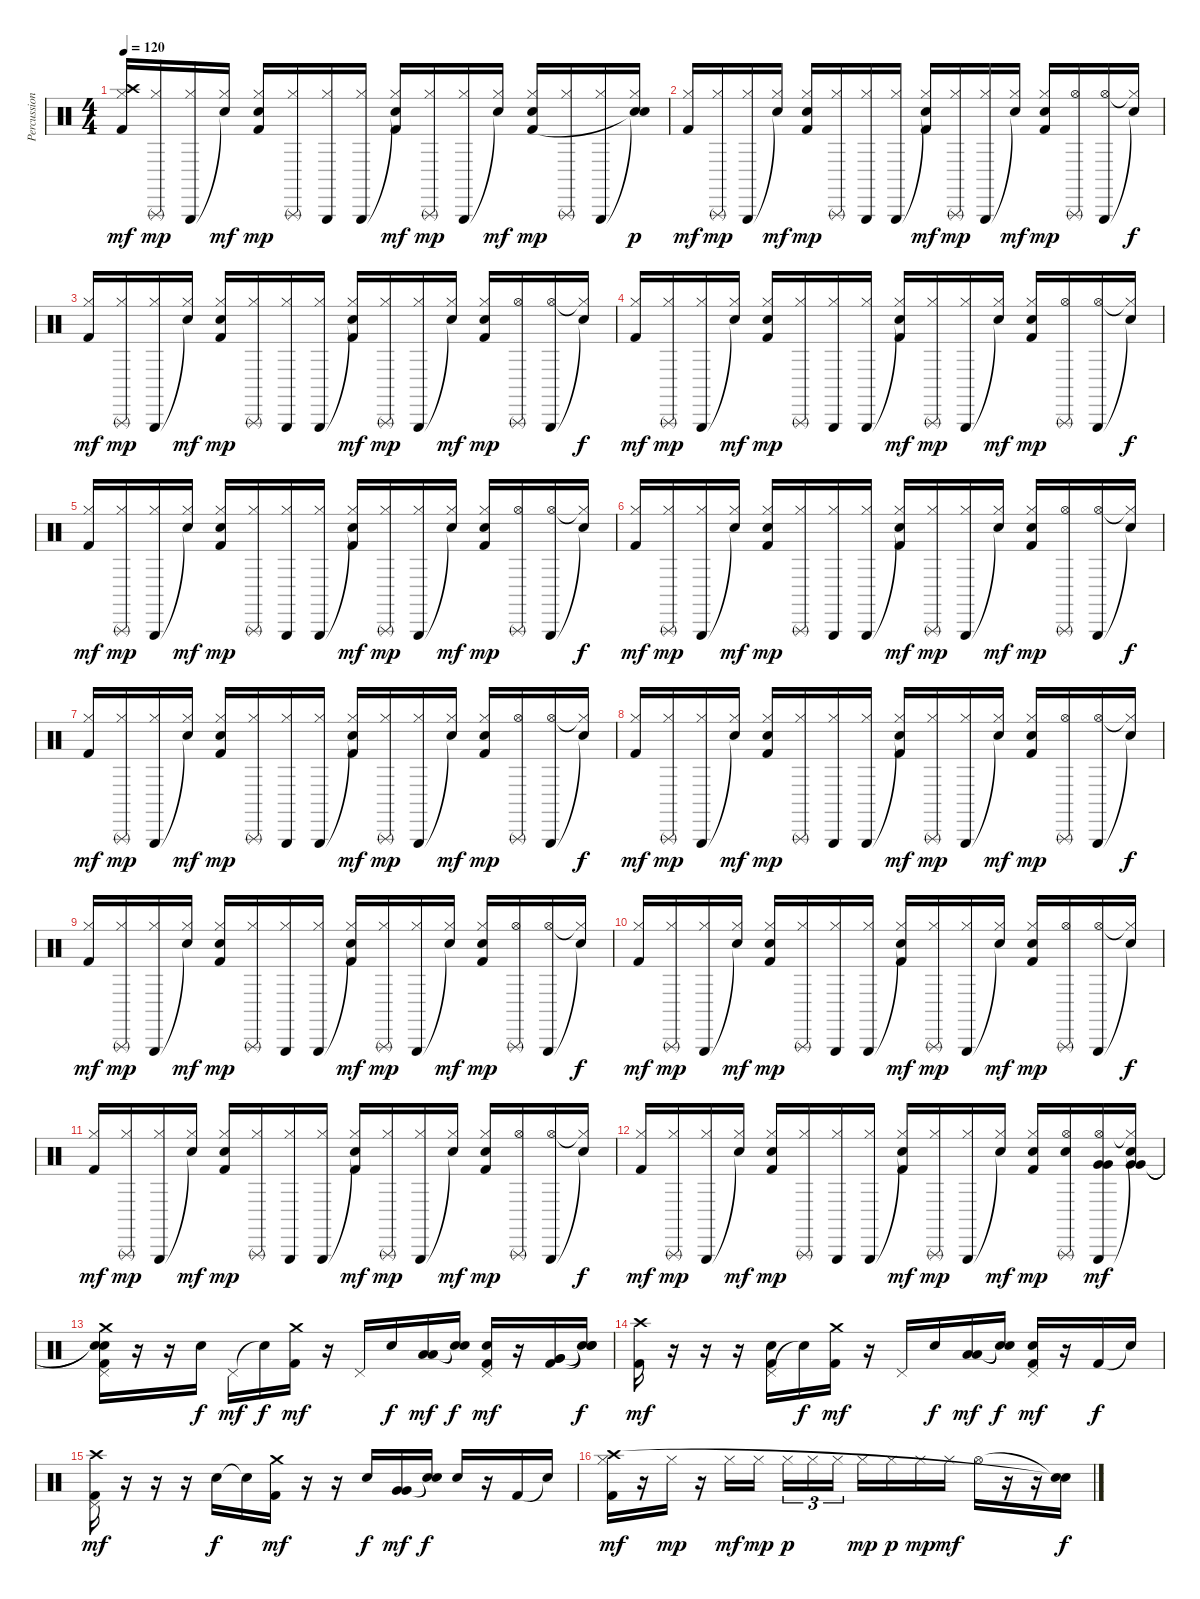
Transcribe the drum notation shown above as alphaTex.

\track ("Percussion" "Percussion") {instrument percussion}
\staff {score}
\articulation defaults
\ts (4 4)
\tempo 120
\clef neutral
\ks c
("Hi-Hat (closed)" "Crash high (hit)" "Kick (hit) 2").16{dy mf} ("Hi-Hat (closed)" "Triangle (rnute)").16{dy mp} ("Hi-Hat (closed)" "Triangle (hit)").16 ("Hi-Hat (closed)" "Snare (hit)"{t}).16{dy mf} ("Hi-Hat (closed)" "Electric Snare (hit)" "Kick (hit) 2").16{dy mp} ("Hi-Hat (closed)" "Triangle (rnute)").16 ("Hi-Hat (closed)" "Triangle (hit)").16 ("Hi-Hat (closed)" "Triangle (hit)").16 ("Hi-Hat (closed)" "Snare (hit)"{t} "Kick (hit) 2").16{dy mf} ("Hi-Hat (closed)" "Triangle (rnute)").16{dy mp} ("Hi-Hat (closed)" "Triangle (hit)").16 ("Hi-Hat (closed)" "Snare (hit)"{t}).16{dy mf} ("Hi-Hat (closed)" "Electric Snare (hit)" "Kick (hit) 2").16{dy mp} ("Hi-Hat (closed)" "Triangle (rnute)").16 ("Hi-Hat (closed)" "Triangle (hit)").16 ("Hi-Hat (closed)" "Snare (hit)"{t} "Snare (hit)"{t}).16{dy p} |
("Hi-Hat (closed)" "Kick (hit) 2").16{dy mf} ("Hi-Hat (closed)" "Triangle (rnute)").16{dy mp} ("Hi-Hat (closed)" "Triangle (hit)").16 ("Hi-Hat (closed)" "Snare (hit)"{t}).16{dy mf} ("Hi-Hat (closed)" "Electric Snare (hit)" "Kick (hit) 2").16{dy mp} ("Hi-Hat (closed)" "Triangle (rnute)").16 ("Hi-Hat (closed)" "Triangle (hit)").16 ("Hi-Hat (closed)" "Triangle (hit)").16 ("Hi-Hat (closed)" "Snare (hit)"{t} "Kick (hit) 2").16{dy mf} ("Hi-Hat (closed)" "Triangle (rnute)").16{dy mp} ("Hi-Hat (closed)" "Triangle (hit)").16 ("Hi-Hat (closed)" "Snare (hit)"{t}).16{dy mf} ("Hi-Hat (closed)" "Electric Snare (hit)" "Kick (hit) 2").16{dy mp} ("Hi-Hat (open)" "Triangle (rnute)").16 ("Hi-Hat (open)" "Triangle (hit)").16 ("Hi-Hat (closed)"{t} "Snare (hit)"{t}).16{dy f} |
("Hi-Hat (closed)" "Kick (hit) 2").16{dy mf} ("Hi-Hat (closed)" "Triangle (rnute)").16{dy mp} ("Hi-Hat (closed)" "Triangle (hit)").16 ("Hi-Hat (closed)" "Snare (hit)"{t}).16{dy mf} ("Hi-Hat (closed)" "Electric Snare (hit)" "Kick (hit) 2").16{dy mp} ("Hi-Hat (closed)" "Triangle (rnute)").16 ("Hi-Hat (closed)" "Triangle (hit)").16 ("Hi-Hat (closed)" "Triangle (hit)").16 ("Hi-Hat (closed)" "Snare (hit)"{t} "Kick (hit) 2").16{dy mf} ("Hi-Hat (closed)" "Triangle (rnute)").16{dy mp} ("Hi-Hat (closed)" "Triangle (hit)").16 ("Hi-Hat (closed)" "Snare (hit)"{t}).16{dy mf} ("Hi-Hat (closed)" "Electric Snare (hit)" "Kick (hit) 2").16{dy mp} ("Hi-Hat (open)" "Triangle (rnute)").16 ("Hi-Hat (open)" "Triangle (hit)").16 ("Hi-Hat (closed)"{t} "Snare (hit)"{t}).16{dy f} |
("Hi-Hat (closed)" "Kick (hit) 2").16{dy mf} ("Hi-Hat (closed)" "Triangle (rnute)").16{dy mp} ("Hi-Hat (closed)" "Triangle (hit)").16 ("Hi-Hat (closed)" "Snare (hit)"{t}).16{dy mf} ("Hi-Hat (closed)" "Electric Snare (hit)" "Kick (hit) 2").16{dy mp} ("Hi-Hat (closed)" "Triangle (rnute)").16 ("Hi-Hat (closed)" "Triangle (hit)").16 ("Hi-Hat (closed)" "Triangle (hit)").16 ("Hi-Hat (closed)" "Snare (hit)"{t} "Kick (hit) 2").16{dy mf} ("Hi-Hat (closed)" "Triangle (rnute)").16{dy mp} ("Hi-Hat (closed)" "Triangle (hit)").16 ("Hi-Hat (closed)" "Snare (hit)"{t}).16{dy mf} ("Hi-Hat (closed)" "Electric Snare (hit)" "Kick (hit) 2").16{dy mp} ("Hi-Hat (open)" "Triangle (rnute)").16 ("Hi-Hat (open)" "Triangle (hit)").16 ("Hi-Hat (closed)"{t} "Snare (hit)"{t}).16{dy f} |
("Hi-Hat (closed)" "Kick (hit) 2").16{dy mf} ("Hi-Hat (closed)" "Triangle (rnute)").16{dy mp} ("Hi-Hat (closed)" "Triangle (hit)").16 ("Hi-Hat (closed)" "Snare (hit)"{t}).16{dy mf} ("Hi-Hat (closed)" "Electric Snare (hit)" "Kick (hit) 2").16{dy mp} ("Hi-Hat (closed)" "Triangle (rnute)").16 ("Hi-Hat (closed)" "Triangle (hit)").16 ("Hi-Hat (closed)" "Triangle (hit)").16 ("Hi-Hat (closed)" "Snare (hit)"{t} "Kick (hit) 2").16{dy mf} ("Hi-Hat (closed)" "Triangle (rnute)").16{dy mp} ("Hi-Hat (closed)" "Triangle (hit)").16 ("Hi-Hat (closed)" "Snare (hit)"{t}).16{dy mf} ("Hi-Hat (closed)" "Electric Snare (hit)" "Kick (hit) 2").16{dy mp} ("Hi-Hat (open)" "Triangle (rnute)").16 ("Hi-Hat (open)" "Triangle (hit)").16 ("Hi-Hat (closed)"{t} "Snare (hit)"{t}).16{dy f} |
("Hi-Hat (closed)" "Kick (hit) 2").16{dy mf} ("Hi-Hat (closed)" "Triangle (rnute)").16{dy mp} ("Hi-Hat (closed)" "Triangle (hit)").16 ("Hi-Hat (closed)" "Snare (hit)"{t}).16{dy mf} ("Hi-Hat (closed)" "Electric Snare (hit)" "Kick (hit) 2").16{dy mp} ("Hi-Hat (closed)" "Triangle (rnute)").16 ("Hi-Hat (closed)" "Triangle (hit)").16 ("Hi-Hat (closed)" "Triangle (hit)").16 ("Hi-Hat (closed)" "Snare (hit)"{t} "Kick (hit) 2").16{dy mf} ("Hi-Hat (closed)" "Triangle (rnute)").16{dy mp} ("Hi-Hat (closed)" "Triangle (hit)").16 ("Hi-Hat (closed)" "Snare (hit)"{t}).16{dy mf} ("Hi-Hat (closed)" "Electric Snare (hit)" "Kick (hit) 2").16{dy mp} ("Hi-Hat (open)" "Triangle (rnute)").16 ("Hi-Hat (open)" "Triangle (hit)").16 ("Hi-Hat (closed)"{t} "Snare (hit)"{t}).16{dy f} |
("Hi-Hat (closed)" "Kick (hit) 2").16{dy mf} ("Hi-Hat (closed)" "Triangle (rnute)").16{dy mp} ("Hi-Hat (closed)" "Triangle (hit)").16 ("Hi-Hat (closed)" "Snare (hit)"{t}).16{dy mf} ("Hi-Hat (closed)" "Electric Snare (hit)" "Kick (hit) 2").16{dy mp} ("Hi-Hat (closed)" "Triangle (rnute)").16 ("Hi-Hat (closed)" "Triangle (hit)").16 ("Hi-Hat (closed)" "Triangle (hit)").16 ("Hi-Hat (closed)" "Snare (hit)"{t} "Kick (hit) 2").16{dy mf} ("Hi-Hat (closed)" "Triangle (rnute)").16{dy mp} ("Hi-Hat (closed)" "Triangle (hit)").16 ("Hi-Hat (closed)" "Snare (hit)"{t}).16{dy mf} ("Hi-Hat (closed)" "Electric Snare (hit)" "Kick (hit) 2").16{dy mp} ("Hi-Hat (open)" "Triangle (rnute)").16 ("Hi-Hat (open)" "Triangle (hit)").16 ("Hi-Hat (closed)"{t} "Snare (hit)"{t}).16{dy f} |
("Hi-Hat (closed)" "Kick (hit) 2").16{dy mf} ("Hi-Hat (closed)" "Triangle (rnute)").16{dy mp} ("Hi-Hat (closed)" "Triangle (hit)").16 ("Hi-Hat (closed)" "Snare (hit)"{t}).16{dy mf} ("Hi-Hat (closed)" "Electric Snare (hit)" "Kick (hit) 2").16{dy mp} ("Hi-Hat (closed)" "Triangle (rnute)").16 ("Hi-Hat (closed)" "Triangle (hit)").16 ("Hi-Hat (closed)" "Triangle (hit)").16 ("Hi-Hat (closed)" "Snare (hit)"{t} "Kick (hit) 2").16{dy mf} ("Hi-Hat (closed)" "Triangle (rnute)").16{dy mp} ("Hi-Hat (closed)" "Triangle (hit)").16 ("Hi-Hat (closed)" "Snare (hit)"{t}).16{dy mf} ("Hi-Hat (closed)" "Electric Snare (hit)" "Kick (hit) 2").16{dy mp} ("Hi-Hat (open)" "Triangle (rnute)").16 ("Hi-Hat (open)" "Triangle (hit)").16 ("Hi-Hat (closed)"{t} "Snare (hit)"{t}).16{dy f} |
("Hi-Hat (closed)" "Kick (hit) 2").16{dy mf} ("Hi-Hat (closed)" "Triangle (rnute)").16{dy mp} ("Hi-Hat (closed)" "Triangle (hit)").16 ("Hi-Hat (closed)" "Snare (hit)"{t}).16{dy mf} ("Hi-Hat (closed)" "Electric Snare (hit)" "Kick (hit) 2").16{dy mp} ("Hi-Hat (closed)" "Triangle (rnute)").16 ("Hi-Hat (closed)" "Triangle (hit)").16 ("Hi-Hat (closed)" "Triangle (hit)").16 ("Hi-Hat (closed)" "Snare (hit)"{t} "Kick (hit) 2").16{dy mf} ("Hi-Hat (closed)" "Triangle (rnute)").16{dy mp} ("Hi-Hat (closed)" "Triangle (hit)").16 ("Hi-Hat (closed)" "Snare (hit)"{t}).16{dy mf} ("Hi-Hat (closed)" "Electric Snare (hit)" "Kick (hit) 2").16{dy mp} ("Hi-Hat (open)" "Triangle (rnute)").16 ("Hi-Hat (open)" "Triangle (hit)").16 ("Hi-Hat (closed)"{t} "Snare (hit)"{t}).16{dy f} |
("Hi-Hat (closed)" "Kick (hit) 2").16{dy mf} ("Hi-Hat (closed)" "Triangle (rnute)").16{dy mp} ("Hi-Hat (closed)" "Triangle (hit)").16 ("Hi-Hat (closed)" "Snare (hit)"{t}).16{dy mf} ("Hi-Hat (closed)" "Electric Snare (hit)" "Kick (hit) 2").16{dy mp} ("Hi-Hat (closed)" "Triangle (rnute)").16 ("Hi-Hat (closed)" "Triangle (hit)").16 ("Hi-Hat (closed)" "Triangle (hit)").16 ("Hi-Hat (closed)" "Snare (hit)"{t} "Kick (hit) 2").16{dy mf} ("Hi-Hat (closed)" "Triangle (rnute)").16{dy mp} ("Hi-Hat (closed)" "Triangle (hit)").16 ("Hi-Hat (closed)" "Snare (hit)"{t}).16{dy mf} ("Hi-Hat (closed)" "Electric Snare (hit)" "Kick (hit) 2").16{dy mp} ("Hi-Hat (open)" "Triangle (rnute)").16 ("Hi-Hat (open)" "Triangle (hit)").16 ("Hi-Hat (closed)"{t} "Snare (hit)"{t}).16{dy f} |
("Hi-Hat (closed)" "Kick (hit) 2").16{dy mf} ("Hi-Hat (closed)" "Triangle (rnute)").16{dy mp} ("Hi-Hat (closed)" "Triangle (hit)").16 ("Hi-Hat (closed)" "Snare (hit)"{t}).16{dy mf} ("Hi-Hat (closed)" "Electric Snare (hit)" "Kick (hit) 2").16{dy mp} ("Hi-Hat (closed)" "Triangle (rnute)").16 ("Hi-Hat (closed)" "Triangle (hit)").16 ("Hi-Hat (closed)" "Triangle (hit)").16 ("Hi-Hat (closed)" "Snare (hit)"{t} "Kick (hit) 2").16{dy mf} ("Hi-Hat (closed)" "Triangle (rnute)").16{dy mp} ("Hi-Hat (closed)" "Triangle (hit)").16 ("Hi-Hat (closed)" "Snare (hit)"{t}).16{dy mf} ("Hi-Hat (closed)" "Electric Snare (hit)" "Kick (hit) 2").16{dy mp} ("Hi-Hat (open)" "Triangle (rnute)").16 ("Hi-Hat (open)" "Triangle (hit)").16 ("Hi-Hat (closed)"{t} "Snare (hit)"{t}).16{dy f} |
("Hi-Hat (closed)" "Kick (hit) 2").16{dy mf} ("Hi-Hat (closed)" "Triangle (rnute)").16{dy mp} ("Hi-Hat (closed)" "Triangle (hit)").16 ("Hi-Hat (closed)" "Snare (hit)"{t}).16{dy mf} ("Hi-Hat (closed)" "Electric Snare (hit)" "Kick (hit) 2").16{dy mp} ("Hi-Hat (closed)" "Triangle (rnute)").16 ("Hi-Hat (closed)" "Triangle (hit)").16 ("Hi-Hat (closed)" "Triangle (hit)").16 ("Hi-Hat (closed)" "Snare (hit)"{t} "Kick (hit) 2").16{dy mf} ("Hi-Hat (closed)" "Triangle (rnute)").16{dy mp} ("Hi-Hat (closed)" "Triangle (hit)").16 ("Hi-Hat (closed)" "Snare (hit)"{t}).16{dy mf} ("Hi-Hat (closed)" "Electric Snare (hit)" "Kick (hit) 2").16{dy mp} ("Hi-Hat (open)" "Triangle (rnute)" "Electric Snare (hit)").16 ("Hi-Hat (open)" "Triangle (hit)" "Very Low Tom (hit)" "Very Low Tom (hit)").16{dy mf} ("Hi-Hat (closed)"{t} "Snare (hit)"{t} "Very Low Tom (hit)" "Very Low Tom (hit)").16 |
("Pedal Hi-Hat (hit)" "Crash medium (hit)" "Snare (hit)"{t} "Snare (hit)"{t} "Kick (hit) 2").16 r.16 r.16 "Electric Snare (hit)".16{dy f} "Pedal Hi-Hat (hit)".16{dy mf} "Snare (hit)"{t}.16{dy f} ("Crash medium (hit)" "Kick (hit) 2").16{dy mf} r.16 "Pedal Hi-Hat (hit)".16 "Electric Snare (hit)".16{dy f} ("Low Tom (hit)" "Low Tom (hit)").16{dy mf} ("Snare (hit)"{t} "Snare (hit)"{t}).16{dy f} ("Pedal Hi-Hat (hit)" "Electric Snare (hit)" "Kick (hit) 2").16{dy mf} r.16 ("Very Low Tom (hit)" "Very Low Tom (hit)" "Kick (hit) 2").16 ("Snare (hit)"{t} "Snare (hit)"{t} "Snare (hit)"{t}).16{dy f} |
("Crash high (hit)" "Kick (hit) 2").16{dy mf} r.16 r.16 r.16 ("Pedal Hi-Hat (hit)" "Electric Snare (hit)" "Kick (hit) 2").16 "Snare (hit)"{t}.16{dy f} ("Crash medium (hit)" "Kick (hit) 2").16{dy mf} r.16 "Pedal Hi-Hat (hit)".16 "Electric Snare (hit)".16{dy f} ("Low Tom (hit)" "Low Tom (hit)").16{dy mf} ("Snare (hit)"{t} "Snare (hit)"{t}).16{dy f} ("Pedal Hi-Hat (hit)" "Electric Snare (hit)" "Kick (hit) 2").16{dy mf} r.16 "Kick (hit) 2".16{dy f} "Snare (hit)"{t}.16 |
("Pedal Hi-Hat (hit)" "Crash high (hit)" "Kick (hit) 2").16{dy mf} r.16 r.16 r.16 "Electric Snare (hit)".16{dy f} "Snare (hit)"{t}.16 ("Crash medium (hit)" "Kick (hit) 2").16{dy mf} r.16 r.16 "Electric Snare (hit)".16{dy f} ("Very Low Tom (hit)" "Very Low Tom (hit)").16{dy mf} ("Snare (hit)"{t} "Snare (hit)"{t}).16{dy f} "Electric Snare (hit)".16 r.16 "Kick (hit) 2".16 "Snare (hit)"{t}.16 |
("Hi-Hat (closed)" "Crash high (hit)" "Kick (hit) 2").16{dy mf} r.16 "Hi-Hat (closed)".16{dy mp} r.16 "Hi-Hat (closed)".16{dy mf} "Hi-Hat (closed)".16{dy mp beam splitsecondary} "Hi-Hat (closed)".16{tu (3 2) dy p} "Hi-Hat (closed)".16{tu (3 2)} "Hi-Hat (closed)".16{tu (3 2)} "Hi-Hat (closed)".16{dy mp} "Hi-Hat (closed)".16{dy p} "Hi-Hat (closed)".16{dy mp} "Hi-Hat (closed)".16{dy mf} "Hi-Hat (open)".16 r.16 r.16 ("Snare (hit)"{t} "Snare (hit)"{t}).16{dy f}
